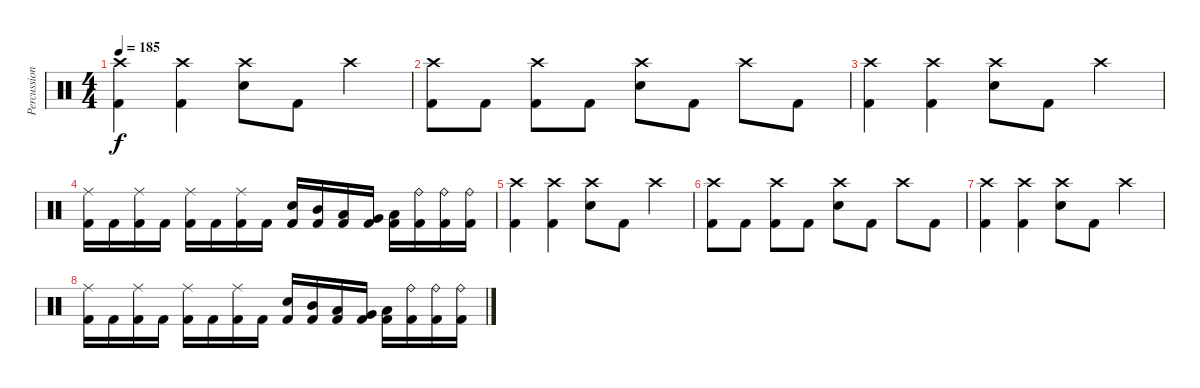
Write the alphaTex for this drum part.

\track ("Percussions" "Percussion") {instrument percussion}
\staff {score}
\articulation defaults
\ts (4 4)
\tempo 185
\clef neutral
\ks c
("Crash high (hit)" "Kick (hit) 2").4{dy f} ("Crash high (hit)" "Kick (hit) 2").4 ("Crash high (hit)" "Snare (hit) 2").8 "Kick (hit) 2".8 "Crash high (hit)".4 |
("Crash high (hit)" "Kick (hit) 2").8 "Kick (hit) 2".8 ("Crash high (hit)" "Kick (hit) 2").8 "Kick (hit) 2".8 ("Crash high (hit)" "Snare (hit) 2").8 "Kick (hit) 2".8 "Crash high (hit)".8 "Kick (hit) 2".8 |
("Crash high (hit)" "Kick (hit) 2").4 ("Crash high (hit)" "Kick (hit) 2").4 ("Crash high (hit)" "Snare (hit) 2").8 "Kick (hit) 2".8 "Crash high (hit)".4 |
("Ride (middle)" "Kick (hit) 2").16 "Kick (hit) 2".16 ("Ride (middle)" "Kick (hit) 2").16 "Kick (hit) 2".16 ("Ride (middle)" "Kick (hit) 2").16 "Kick (hit) 2".16 ("Ride (middle)" "Kick (hit) 2").16 "Kick (hit) 2".16 ("Snare (hit) 2" "Kick (hit) 2").16 ("Mid Tom (hit)" "Kick (hit) 2").16 ("Low Tom (hit)" "Kick (hit) 2").16 ("Very Low Tom (hit)" "Kick (hit) 2").16 ("Low Floor Tom (hit)" "Kick (hit) 2").16 ("Ride (bell)" "Kick (hit) 2").16 ("Ride (bell)" "Kick (hit) 2").16 ("Ride (bell)" "Kick (hit) 2").16 |
("Crash high (hit)" "Kick (hit) 2").4 ("Crash high (hit)" "Kick (hit) 2").4 ("Crash high (hit)" "Snare (hit) 2").8 "Kick (hit) 2".8 "Crash high (hit)".4 |
("Crash high (hit)" "Kick (hit) 2").8 "Kick (hit) 2".8 ("Crash high (hit)" "Kick (hit) 2").8 "Kick (hit) 2".8 ("Crash high (hit)" "Snare (hit) 2").8 "Kick (hit) 2".8 "Crash high (hit)".8 "Kick (hit) 2".8 |
("Crash high (hit)" "Kick (hit) 2").4 ("Crash high (hit)" "Kick (hit) 2").4 ("Crash high (hit)" "Snare (hit) 2").8 "Kick (hit) 2".8 "Crash high (hit)".4 |
("Ride (middle)" "Kick (hit) 2").16 "Kick (hit) 2".16 ("Ride (middle)" "Kick (hit) 2").16 "Kick (hit) 2".16 ("Ride (middle)" "Kick (hit) 2").16 "Kick (hit) 2".16 ("Ride (middle)" "Kick (hit) 2").16 "Kick (hit) 2".16 ("Snare (hit) 2" "Kick (hit) 2").16 ("Mid Tom (hit)" "Kick (hit) 2").16 ("Low Tom (hit)" "Kick (hit) 2").16 ("Very Low Tom (hit)" "Kick (hit) 2").16 ("Low Floor Tom (hit)" "Kick (hit) 2").16 ("Ride (bell)" "Kick (hit) 2").16 ("Ride (bell)" "Kick (hit) 2").16 ("Ride (bell)" "Kick (hit) 2").16
